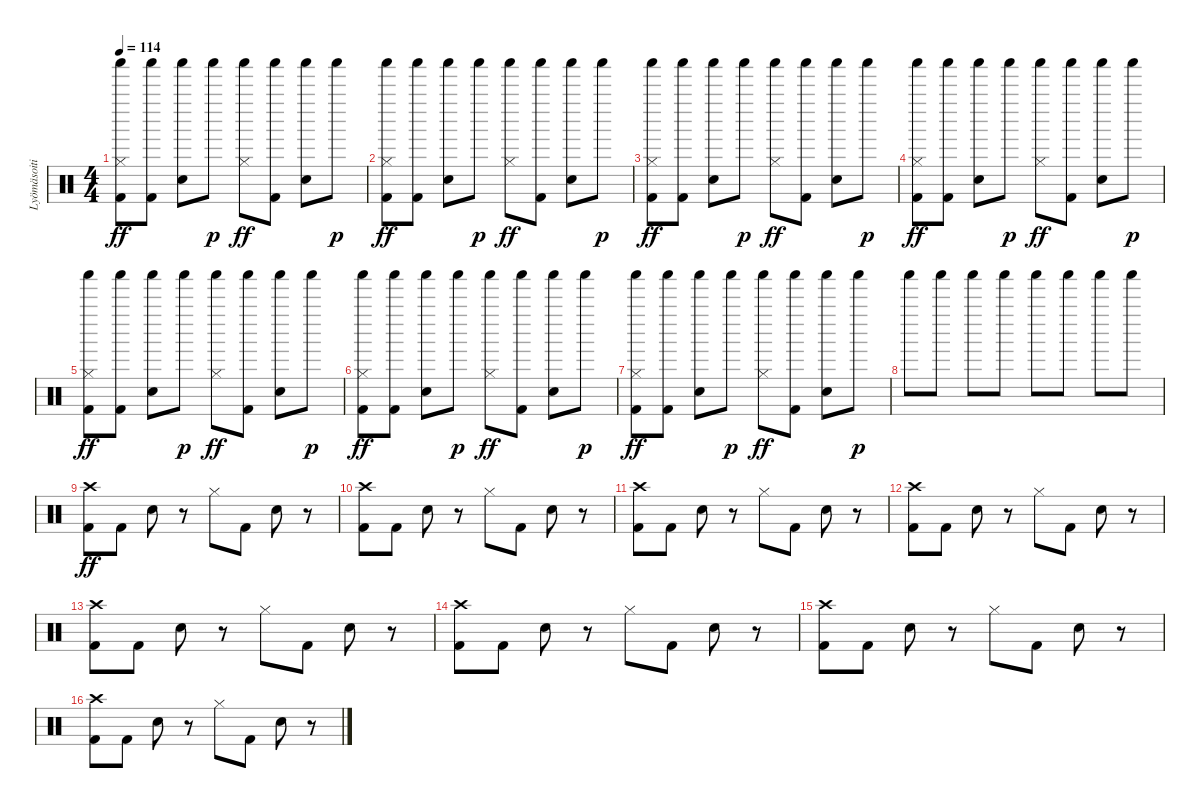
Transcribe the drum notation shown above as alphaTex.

\track ("Lyömäsoitin" "Lyömäsoiti") {instrument percussion}
\staff {score}
\articulation defaults
\ts (4 4)
\tempo 114
\clef neutral
\ks c
("Shaker (hit)" "Hi-Hat (closed)" "Kick (hit) 2").8{dy ff} ("Shaker (hit)" "Kick (hit) 2").8 ("Shaker (hit)" "Electric Snare (hit)").8 "Shaker (hit)".8{dy p} ("Shaker (hit)" "Hi-Hat (closed)").8{dy ff} ("Shaker (hit)" "Kick (hit) 2").8 ("Shaker (hit)" "Electric Snare (hit)").8 "Shaker (hit)".8{dy p} |
("Shaker (hit)" "Hi-Hat (closed)" "Kick (hit) 2").8{dy ff} ("Shaker (hit)" "Kick (hit) 2").8 ("Shaker (hit)" "Electric Snare (hit)").8 "Shaker (hit)".8{dy p} ("Shaker (hit)" "Hi-Hat (closed)").8{dy ff} ("Shaker (hit)" "Kick (hit) 2").8 ("Shaker (hit)" "Electric Snare (hit)").8 "Shaker (hit)".8{dy p} |
("Shaker (hit)" "Hi-Hat (closed)" "Kick (hit) 2").8{dy ff} ("Shaker (hit)" "Kick (hit) 2").8 ("Shaker (hit)" "Electric Snare (hit)").8 "Shaker (hit)".8{dy p} ("Shaker (hit)" "Hi-Hat (closed)").8{dy ff} ("Shaker (hit)" "Kick (hit) 2").8 ("Shaker (hit)" "Electric Snare (hit)").8 "Shaker (hit)".8{dy p} |
("Shaker (hit)" "Hi-Hat (closed)" "Kick (hit) 2").8{dy ff} ("Shaker (hit)" "Kick (hit) 2").8 ("Shaker (hit)" "Electric Snare (hit)").8 "Shaker (hit)".8{dy p} ("Shaker (hit)" "Hi-Hat (closed)").8{dy ff} ("Shaker (hit)" "Kick (hit) 2").8 ("Shaker (hit)" "Electric Snare (hit)").8 "Shaker (hit)".8{dy p} |
("Shaker (hit)" "Hi-Hat (closed)" "Kick (hit) 2").8{dy ff} ("Shaker (hit)" "Kick (hit) 2").8 ("Shaker (hit)" "Electric Snare (hit)").8 "Shaker (hit)".8{dy p} ("Shaker (hit)" "Hi-Hat (closed)").8{dy ff} ("Shaker (hit)" "Kick (hit) 2").8 ("Shaker (hit)" "Electric Snare (hit)").8 "Shaker (hit)".8{dy p} |
("Shaker (hit)" "Hi-Hat (closed)" "Kick (hit) 2").8{dy ff} ("Shaker (hit)" "Kick (hit) 2").8 ("Shaker (hit)" "Electric Snare (hit)").8 "Shaker (hit)".8{dy p} ("Shaker (hit)" "Hi-Hat (closed)").8{dy ff} ("Shaker (hit)" "Kick (hit) 2").8 ("Shaker (hit)" "Electric Snare (hit)").8 "Shaker (hit)".8{dy p} |
("Shaker (hit)" "Hi-Hat (closed)" "Kick (hit) 2").8{dy ff} ("Shaker (hit)" "Kick (hit) 2").8 ("Shaker (hit)" "Electric Snare (hit)").8 "Shaker (hit)".8{dy p} ("Shaker (hit)" "Hi-Hat (closed)").8{dy ff} ("Shaker (hit)" "Kick (hit) 2").8 ("Shaker (hit)" "Electric Snare (hit)").8 "Shaker (hit)".8{dy p} |
"Shaker (hit)".8 "Shaker (hit)".8 "Shaker (hit)".8 "Shaker (hit)".8 "Shaker (hit)".8 "Shaker (hit)".8 "Shaker (hit)".8 "Shaker (hit)".8 |
("Crash high (hit)" "Kick (hit) 2").8{dy ff} "Kick (hit) 2".8 "Electric Snare (hit)".8 r.8 "Hi-Hat (closed)".8 "Kick (hit) 2".8 "Electric Snare (hit)".8 r.8 |
("Crash high (hit)" "Kick (hit) 2").8 "Kick (hit) 2".8 "Electric Snare (hit)".8 r.8 "Hi-Hat (closed)".8 "Kick (hit) 2".8 "Electric Snare (hit)".8 r.8 |
("Crash high (hit)" "Kick (hit) 2").8 "Kick (hit) 2".8 "Electric Snare (hit)".8 r.8 "Hi-Hat (closed)".8 "Kick (hit) 2".8 "Electric Snare (hit)".8 r.8 |
("Crash high (hit)" "Kick (hit) 2").8 "Kick (hit) 2".8 "Electric Snare (hit)".8 r.8 "Hi-Hat (closed)".8 "Kick (hit) 2".8 "Electric Snare (hit)".8 r.8 |
("Crash high (hit)" "Kick (hit) 2").8 "Kick (hit) 2".8 "Electric Snare (hit)".8 r.8 "Hi-Hat (closed)".8 "Kick (hit) 2".8 "Electric Snare (hit)".8 r.8 |
("Crash high (hit)" "Kick (hit) 2").8 "Kick (hit) 2".8 "Electric Snare (hit)".8 r.8 "Hi-Hat (closed)".8 "Kick (hit) 2".8 "Electric Snare (hit)".8 r.8 |
("Crash high (hit)" "Kick (hit) 2").8 "Kick (hit) 2".8 "Electric Snare (hit)".8 r.8 "Hi-Hat (closed)".8 "Kick (hit) 2".8 "Electric Snare (hit)".8 r.8 |
("Crash high (hit)" "Kick (hit) 2").8 "Kick (hit) 2".8 "Electric Snare (hit)".8 r.8 "Hi-Hat (closed)".8 "Kick (hit) 2".8 "Electric Snare (hit)".8 r.8
